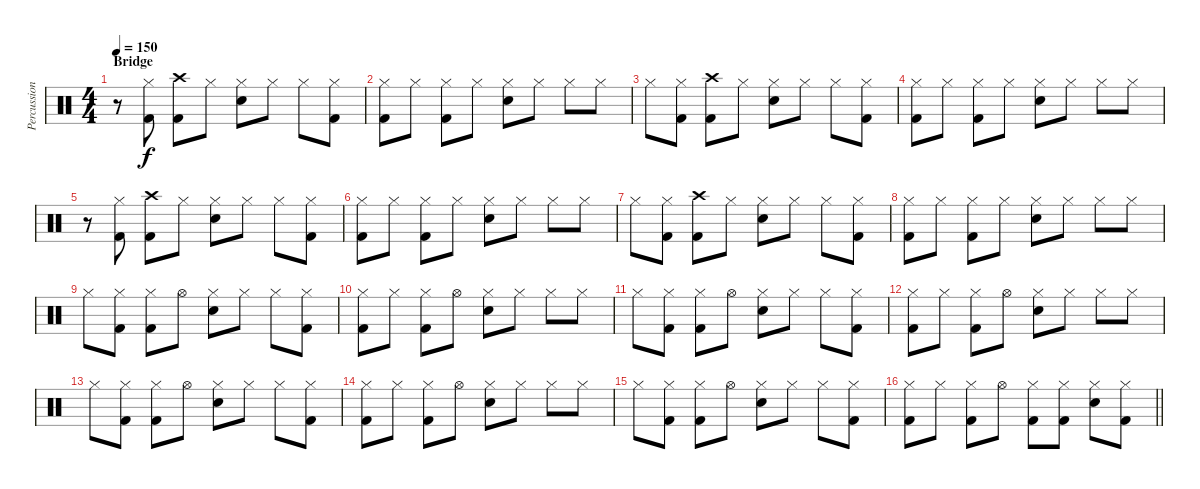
\track ("Percussion" "Percussion") {instrument percussion}
\staff {score}
\articulation defaults
\ts (4 4)
\section ("" "Bridge")
\tempo 150
\clef neutral
\ks c
r.8{dy f} ("Hi-Hat (closed)" "Kick (hit) 2").8 ("Crash high (hit)" "Kick (hit) 2").8 "Hi-Hat (closed)".8 ("Hi-Hat (closed)" "Electric Snare (hit)").8 "Hi-Hat (closed)".8 "Hi-Hat (closed)".8 ("Hi-Hat (closed)" "Kick (hit) 2").8 |
("Hi-Hat (closed)" "Kick (hit) 2").8 "Hi-Hat (closed)".8 ("Hi-Hat (closed)" "Kick (hit) 2").8 "Hi-Hat (closed)".8 ("Hi-Hat (closed)" "Electric Snare (hit)").8 "Hi-Hat (closed)".8 "Hi-Hat (closed)".8 "Hi-Hat (closed)".8 |
"Hi-Hat (closed)".8 ("Hi-Hat (closed)" "Kick (hit) 2").8 ("Crash high (hit)" "Kick (hit) 2").8 "Hi-Hat (closed)".8 ("Hi-Hat (closed)" "Electric Snare (hit)").8 "Hi-Hat (closed)".8 "Hi-Hat (closed)".8 ("Hi-Hat (closed)" "Kick (hit) 2").8 |
("Hi-Hat (closed)" "Kick (hit) 2").8 "Hi-Hat (closed)".8 ("Hi-Hat (closed)" "Kick (hit) 2").8 "Hi-Hat (closed)".8 ("Hi-Hat (closed)" "Electric Snare (hit)").8 "Hi-Hat (closed)".8 "Hi-Hat (closed)".8 "Hi-Hat (closed)".8 |
r.8 ("Hi-Hat (closed)" "Kick (hit) 2").8 ("Crash high (hit)" "Kick (hit) 2").8 "Hi-Hat (closed)".8 ("Hi-Hat (closed)" "Electric Snare (hit)").8 "Hi-Hat (closed)".8 "Hi-Hat (closed)".8 ("Hi-Hat (closed)" "Kick (hit) 2").8 |
("Hi-Hat (closed)" "Kick (hit) 2").8 "Hi-Hat (closed)".8 ("Hi-Hat (closed)" "Kick (hit) 2").8 "Hi-Hat (closed)".8 ("Hi-Hat (closed)" "Electric Snare (hit)").8 "Hi-Hat (closed)".8 "Hi-Hat (closed)".8 "Hi-Hat (closed)".8 |
"Hi-Hat (closed)".8 ("Hi-Hat (closed)" "Kick (hit) 2").8 ("Crash high (hit)" "Kick (hit) 2").8 "Hi-Hat (closed)".8 ("Hi-Hat (closed)" "Electric Snare (hit)").8 "Hi-Hat (closed)".8 "Hi-Hat (closed)".8 ("Hi-Hat (closed)" "Kick (hit) 2").8 |
("Hi-Hat (closed)" "Kick (hit) 2").8 "Hi-Hat (closed)".8 ("Hi-Hat (closed)" "Kick (hit) 2").8 "Hi-Hat (closed)".8 ("Hi-Hat (closed)" "Electric Snare (hit)").8 "Hi-Hat (closed)".8 "Hi-Hat (closed)".8 "Hi-Hat (closed)".8 |
"Hi-Hat (closed)".8 ("Hi-Hat (closed)" "Kick (hit) 2").8 ("Hi-Hat (closed)" "Kick (hit) 2").8 "Hi-Hat (open)".8 ("Hi-Hat (closed)" "Electric Snare (hit)").8 "Hi-Hat (closed)".8 "Hi-Hat (closed)".8 ("Hi-Hat (closed)" "Kick (hit) 2").8 |
("Hi-Hat (closed)" "Kick (hit) 2").8 "Hi-Hat (closed)".8 ("Hi-Hat (closed)" "Kick (hit) 2").8 "Hi-Hat (open)".8 ("Hi-Hat (closed)" "Electric Snare (hit)").8 "Hi-Hat (closed)".8 "Hi-Hat (closed)".8 "Hi-Hat (closed)".8 |
"Hi-Hat (closed)".8 ("Hi-Hat (closed)" "Kick (hit) 2").8 ("Hi-Hat (closed)" "Kick (hit) 2").8 "Hi-Hat (open)".8 ("Hi-Hat (closed)" "Electric Snare (hit)").8 "Hi-Hat (closed)".8 "Hi-Hat (closed)".8 ("Hi-Hat (closed)" "Kick (hit) 2").8 |
("Hi-Hat (closed)" "Kick (hit) 2").8 "Hi-Hat (closed)".8 ("Hi-Hat (closed)" "Kick (hit) 2").8 "Hi-Hat (open)".8 ("Hi-Hat (closed)" "Electric Snare (hit)").8 "Hi-Hat (closed)".8 "Hi-Hat (closed)".8 "Hi-Hat (closed)".8 |
"Hi-Hat (closed)".8 ("Hi-Hat (closed)" "Kick (hit) 2").8 ("Hi-Hat (closed)" "Kick (hit) 2").8 "Hi-Hat (open)".8 ("Hi-Hat (closed)" "Electric Snare (hit)").8 "Hi-Hat (closed)".8 "Hi-Hat (closed)".8 ("Hi-Hat (closed)" "Kick (hit) 2").8 |
("Hi-Hat (closed)" "Kick (hit) 2").8 "Hi-Hat (closed)".8 ("Hi-Hat (closed)" "Kick (hit) 2").8 "Hi-Hat (open)".8 ("Hi-Hat (closed)" "Electric Snare (hit)").8 "Hi-Hat (closed)".8 "Hi-Hat (closed)".8 "Hi-Hat (closed)".8 |
"Hi-Hat (closed)".8 ("Hi-Hat (closed)" "Kick (hit) 2").8 ("Hi-Hat (closed)" "Kick (hit) 2").8 "Hi-Hat (open)".8 ("Hi-Hat (closed)" "Electric Snare (hit)").8 "Hi-Hat (closed)".8 "Hi-Hat (closed)".8 ("Hi-Hat (closed)" "Kick (hit) 2").8 |
\barLineRight lightlight
("Hi-Hat (closed)" "Kick (hit) 2").8 "Hi-Hat (closed)".8 ("Hi-Hat (closed)" "Kick (hit) 2").8 "Hi-Hat (open)".8 ("Hi-Hat (closed)" "Kick (hit) 2").8 ("Hi-Hat (closed)" "Kick (hit) 2").8 ("Hi-Hat (closed)" "Electric Snare (hit)").8 ("Hi-Hat (closed)" "Kick (hit) 2").8
